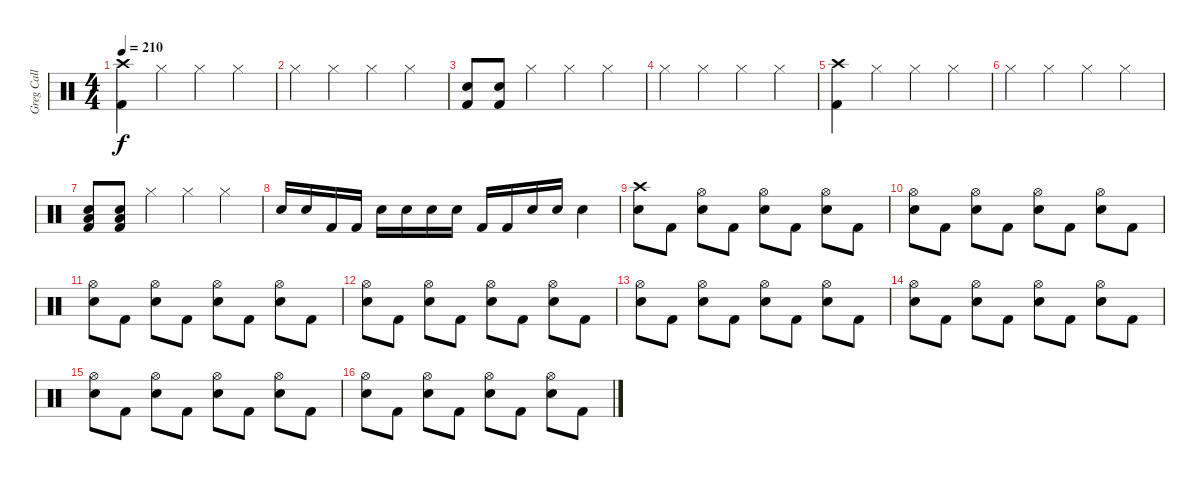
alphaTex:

\track ("Greg Call (Drums)" "Greg Call ") {instrument percussion}
\staff {score}
\articulation defaults
\ts (4 4)
\tempo 210
\clef neutral
\ks c
("Crash high (hit)" "Kick (hit) 2").4{dy f} "Hi-Hat (closed)".4 "Hi-Hat (closed)".4 "Hi-Hat (closed)".4 |
"Hi-Hat (closed)".4 "Hi-Hat (closed)".4 "Hi-Hat (closed)".4 "Hi-Hat (closed)".4 |
("Electric Snare (hit)" "Kick (hit) 2").8 ("Electric Snare (hit)" "Kick (hit) 2").8 "Hi-Hat (closed)".4 "Hi-Hat (closed)".4 "Hi-Hat (closed)".4 |
"Hi-Hat (closed)".4 "Hi-Hat (closed)".4 "Hi-Hat (closed)".4 "Hi-Hat (closed)".4 |
("Crash high (hit)" "Kick (hit) 2").4 "Hi-Hat (closed)".4 "Hi-Hat (closed)".4 "Hi-Hat (closed)".4 |
"Hi-Hat (closed)".4 "Hi-Hat (closed)".4 "Hi-Hat (closed)".4 "Hi-Hat (closed)".4 |
("Low Floor Tom (hit)" "Electric Snare (hit)" "Kick (hit) 2").8 ("Low Floor Tom (hit)" "Electric Snare (hit)" "Kick (hit) 2").8 "Hi-Hat (closed)".4 "Hi-Hat (closed)".4 "Hi-Hat (closed)".4 |
"Electric Snare (hit)".16 "Electric Snare (hit)".16 "Kick (hit) 2".16 "Kick (hit) 2".16 "Electric Snare (hit)".16 "Electric Snare (hit)".16 "Electric Snare (hit)".16 "Electric Snare (hit)".16 "Kick (hit) 2".16 "Kick (hit) 2".16 "Electric Snare (hit)".16 "Electric Snare (hit)".16 "Electric Snare (hit)".4 |
("Crash high (hit)" "Electric Snare (hit)").8 "Kick (hit) 2".8 ("Hi-Hat (open)" "Electric Snare (hit)").8 "Kick (hit) 2".8 ("Hi-Hat (open)" "Electric Snare (hit)").8 "Kick (hit) 2".8 ("Hi-Hat (open)" "Electric Snare (hit)").8 "Kick (hit) 2".8 |
("Hi-Hat (open)" "Electric Snare (hit)").8 "Kick (hit) 2".8 ("Hi-Hat (open)" "Electric Snare (hit)").8 "Kick (hit) 2".8 ("Hi-Hat (open)" "Electric Snare (hit)").8 "Kick (hit) 2".8 ("Hi-Hat (open)" "Electric Snare (hit)").8 "Kick (hit) 2".8 |
("Hi-Hat (open)" "Electric Snare (hit)").8 "Kick (hit) 2".8 ("Hi-Hat (open)" "Electric Snare (hit)").8 "Kick (hit) 2".8 ("Hi-Hat (open)" "Electric Snare (hit)").8 "Kick (hit) 2".8 ("Hi-Hat (open)" "Electric Snare (hit)").8 "Kick (hit) 2".8 |
("Hi-Hat (open)" "Electric Snare (hit)").8 "Kick (hit) 2".8 ("Hi-Hat (open)" "Electric Snare (hit)").8 "Kick (hit) 2".8 ("Hi-Hat (open)" "Electric Snare (hit)").8 "Kick (hit) 2".8 ("Hi-Hat (open)" "Electric Snare (hit)").8 "Kick (hit) 2".8 |
("Hi-Hat (open)" "Electric Snare (hit)").8 "Kick (hit) 2".8 ("Hi-Hat (open)" "Electric Snare (hit)").8 "Kick (hit) 2".8 ("Hi-Hat (open)" "Electric Snare (hit)").8 "Kick (hit) 2".8 ("Hi-Hat (open)" "Electric Snare (hit)").8 "Kick (hit) 2".8 |
("Hi-Hat (open)" "Electric Snare (hit)").8 "Kick (hit) 2".8 ("Hi-Hat (open)" "Electric Snare (hit)").8 "Kick (hit) 2".8 ("Hi-Hat (open)" "Electric Snare (hit)").8 "Kick (hit) 2".8 ("Hi-Hat (open)" "Electric Snare (hit)").8 "Kick (hit) 2".8 |
("Hi-Hat (open)" "Electric Snare (hit)").8 "Kick (hit) 2".8 ("Hi-Hat (open)" "Electric Snare (hit)").8 "Kick (hit) 2".8 ("Hi-Hat (open)" "Electric Snare (hit)").8 "Kick (hit) 2".8 ("Hi-Hat (open)" "Electric Snare (hit)").8 "Kick (hit) 2".8 |
("Hi-Hat (open)" "Electric Snare (hit)").8 "Kick (hit) 2".8 ("Hi-Hat (open)" "Electric Snare (hit)").8 "Kick (hit) 2".8 ("Hi-Hat (open)" "Electric Snare (hit)").8 "Kick (hit) 2".8 ("Hi-Hat (open)" "Electric Snare (hit)").8 "Kick (hit) 2".8
